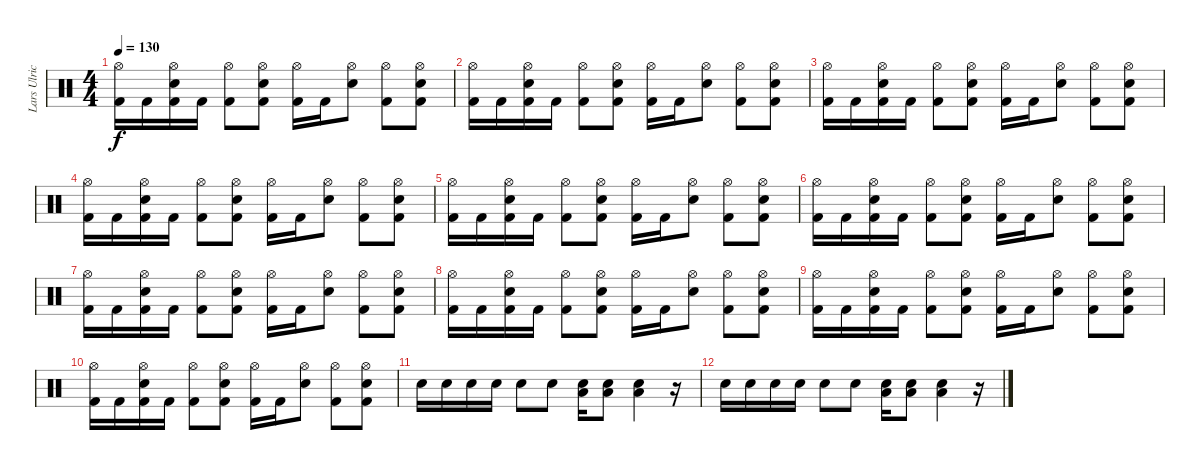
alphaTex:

\track ("Lars Ulrich" "Lars Ulric") {instrument percussion}
\staff {score}
\articulation defaults
\ts (4 4)
\tempo 130
\clef neutral
\ks c
("Hi-Hat (open)" "Kick (hit) 2").16{dy f} "Kick (hit) 2".16 ("Hi-Hat (open)" "Electric Snare (hit)" "Kick (hit) 2").16 "Kick (hit) 2".16 ("Hi-Hat (open)" "Kick (hit) 2").8 ("Hi-Hat (open)" "Electric Snare (hit)" "Kick (hit) 2").8 ("Hi-Hat (open)" "Kick (hit) 2").16 "Kick (hit) 2".16 ("Hi-Hat (open)" "Electric Snare (hit)").8 ("Hi-Hat (open)" "Kick (hit) 2").8 ("Hi-Hat (open)" "Electric Snare (hit)" "Kick (hit) 2").8 |
("Hi-Hat (open)" "Kick (hit) 2").16 "Kick (hit) 2".16 ("Hi-Hat (open)" "Electric Snare (hit)" "Kick (hit) 2").16 "Kick (hit) 2".16 ("Hi-Hat (open)" "Kick (hit) 2").8 ("Hi-Hat (open)" "Electric Snare (hit)" "Kick (hit) 2").8 ("Hi-Hat (open)" "Kick (hit) 2").16 "Kick (hit) 2".16 ("Hi-Hat (open)" "Electric Snare (hit)").8 ("Hi-Hat (open)" "Kick (hit) 2").8 ("Hi-Hat (open)" "Electric Snare (hit)" "Kick (hit) 2").8 |
("Hi-Hat (open)" "Kick (hit) 2").16 "Kick (hit) 2".16 ("Hi-Hat (open)" "Electric Snare (hit)" "Kick (hit) 2").16 "Kick (hit) 2".16 ("Hi-Hat (open)" "Kick (hit) 2").8 ("Hi-Hat (open)" "Electric Snare (hit)" "Kick (hit) 2").8 ("Hi-Hat (open)" "Kick (hit) 2").16 "Kick (hit) 2".16 ("Hi-Hat (open)" "Electric Snare (hit)").8 ("Hi-Hat (open)" "Kick (hit) 2").8 ("Hi-Hat (open)" "Electric Snare (hit)" "Kick (hit) 2").8 |
("Hi-Hat (open)" "Kick (hit) 2").16 "Kick (hit) 2".16 ("Hi-Hat (open)" "Electric Snare (hit)" "Kick (hit) 2").16 "Kick (hit) 2".16 ("Hi-Hat (open)" "Kick (hit) 2").8 ("Hi-Hat (open)" "Electric Snare (hit)" "Kick (hit) 2").8 ("Hi-Hat (open)" "Kick (hit) 2").16 "Kick (hit) 2".16 ("Hi-Hat (open)" "Electric Snare (hit)").8 ("Hi-Hat (open)" "Kick (hit) 2").8 ("Hi-Hat (open)" "Electric Snare (hit)" "Kick (hit) 2").8 |
("Hi-Hat (open)" "Kick (hit) 2").16 "Kick (hit) 2".16 ("Hi-Hat (open)" "Electric Snare (hit)" "Kick (hit) 2").16 "Kick (hit) 2".16 ("Hi-Hat (open)" "Kick (hit) 2").8 ("Hi-Hat (open)" "Electric Snare (hit)" "Kick (hit) 2").8 ("Hi-Hat (open)" "Kick (hit) 2").16 "Kick (hit) 2".16 ("Hi-Hat (open)" "Electric Snare (hit)").8 ("Hi-Hat (open)" "Kick (hit) 2").8 ("Hi-Hat (open)" "Electric Snare (hit)" "Kick (hit) 2").8 |
("Hi-Hat (open)" "Kick (hit) 2").16 "Kick (hit) 2".16 ("Hi-Hat (open)" "Electric Snare (hit)" "Kick (hit) 2").16 "Kick (hit) 2".16 ("Hi-Hat (open)" "Kick (hit) 2").8 ("Hi-Hat (open)" "Electric Snare (hit)" "Kick (hit) 2").8 ("Hi-Hat (open)" "Kick (hit) 2").16 "Kick (hit) 2".16 ("Hi-Hat (open)" "Electric Snare (hit)").8 ("Hi-Hat (open)" "Kick (hit) 2").8 ("Hi-Hat (open)" "Electric Snare (hit)" "Kick (hit) 2").8 |
("Hi-Hat (open)" "Kick (hit) 2").16 "Kick (hit) 2".16 ("Hi-Hat (open)" "Electric Snare (hit)" "Kick (hit) 2").16 "Kick (hit) 2".16 ("Hi-Hat (open)" "Kick (hit) 2").8 ("Hi-Hat (open)" "Electric Snare (hit)" "Kick (hit) 2").8 ("Hi-Hat (open)" "Kick (hit) 2").16 "Kick (hit) 2".16 ("Hi-Hat (open)" "Electric Snare (hit)").8 ("Hi-Hat (open)" "Kick (hit) 2").8 ("Hi-Hat (open)" "Electric Snare (hit)" "Kick (hit) 2").8 |
("Hi-Hat (open)" "Kick (hit) 2").16 "Kick (hit) 2".16 ("Hi-Hat (open)" "Electric Snare (hit)" "Kick (hit) 2").16 "Kick (hit) 2".16 ("Hi-Hat (open)" "Kick (hit) 2").8 ("Hi-Hat (open)" "Electric Snare (hit)" "Kick (hit) 2").8 ("Hi-Hat (open)" "Kick (hit) 2").16 "Kick (hit) 2".16 ("Hi-Hat (open)" "Electric Snare (hit)").8 ("Hi-Hat (open)" "Kick (hit) 2").8 ("Hi-Hat (open)" "Electric Snare (hit)" "Kick (hit) 2").8 |
("Hi-Hat (open)" "Kick (hit) 2").16 "Kick (hit) 2".16 ("Hi-Hat (open)" "Electric Snare (hit)" "Kick (hit) 2").16 "Kick (hit) 2".16 ("Hi-Hat (open)" "Kick (hit) 2").8 ("Hi-Hat (open)" "Electric Snare (hit)" "Kick (hit) 2").8 ("Hi-Hat (open)" "Kick (hit) 2").16 "Kick (hit) 2".16 ("Hi-Hat (open)" "Electric Snare (hit)").8 ("Hi-Hat (open)" "Kick (hit) 2").8 ("Hi-Hat (open)" "Electric Snare (hit)" "Kick (hit) 2").8 |
("Hi-Hat (open)" "Kick (hit) 2").16 "Kick (hit) 2".16 ("Hi-Hat (open)" "Electric Snare (hit)" "Kick (hit) 2").16 "Kick (hit) 2".16 ("Hi-Hat (open)" "Kick (hit) 2").8 ("Hi-Hat (open)" "Electric Snare (hit)" "Kick (hit) 2").8 ("Hi-Hat (open)" "Kick (hit) 2").16 "Kick (hit) 2".16 ("Hi-Hat (open)" "Electric Snare (hit)").8 ("Hi-Hat (open)" "Kick (hit) 2").8 ("Hi-Hat (open)" "Electric Snare (hit)" "Kick (hit) 2").8 |
"Electric Snare (hit)".16 "Electric Snare (hit)".16 "Electric Snare (hit)".16 "Electric Snare (hit)".16 "Electric Snare (hit)".8 "Electric Snare (hit)".8 ("Electric Snare (hit)" "Low Floor Tom (hit)").16 ("Electric Snare (hit)" "Low Floor Tom (hit)").8 ("Electric Snare (hit)" "Low Floor Tom (hit)").4 r.16 |
"Electric Snare (hit)".16 "Electric Snare (hit)".16 "Electric Snare (hit)".16 "Electric Snare (hit)".16 "Electric Snare (hit)".8 "Electric Snare (hit)".8 ("Electric Snare (hit)" "Low Floor Tom (hit)").16 ("Electric Snare (hit)" "Low Floor Tom (hit)").8 ("Electric Snare (hit)" "Low Floor Tom (hit)").4 r.16
